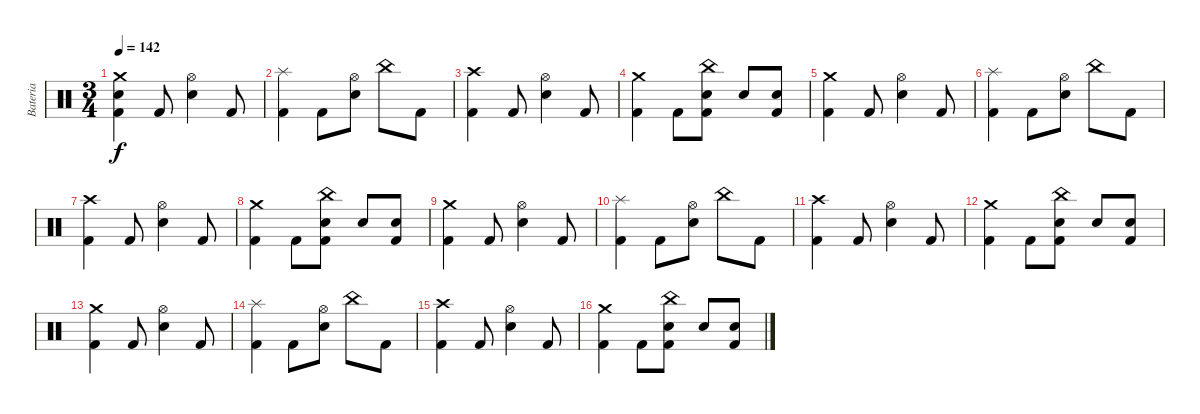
\track ("Bateria" "Bateria") {instrument percussion}
\staff {score}
\articulation defaults
\ts (3 4)
\tempo 142
\clef neutral
\ks c
("Crash medium (hit)" "Snare (hit)" "Kick (hit) 2").4{dy f} "Kick (hit) 2".8 ("Hi-Hat (open)" "Snare (hit) 2").4 "Kick (hit) 2".8 |
("Splash (hit)" "Kick (hit) 2").4 "Kick (hit) 2".8 ("Hi-Hat (open)" "Snare (hit) 2").8 "China (hit)".8 "Kick (hit) 2".8 |
("Crash high (hit)" "Kick (hit) 2").4 "Kick (hit) 2".8 ("Hi-Hat (open)" "Snare (hit) 2").4 "Kick (hit) 2".8 |
("Crash medium (hit)" "Kick (hit) 2").4 "Kick (hit) 2".8 ("China (hit)" "Snare (hit) 2" "Kick (hit) 2").8 "Snare (hit) 2".8 ("Snare (hit) 2" "Kick (hit) 2").8 |
("Crash medium (hit)" "Kick (hit) 2").4 "Kick (hit) 2".8 ("Hi-Hat (open)" "Snare (hit) 2").4 "Kick (hit) 2".8 |
("Splash (hit)" "Kick (hit) 2").4 "Kick (hit) 2".8 ("Hi-Hat (open)" "Snare (hit) 2").8 "China (hit)".8 "Kick (hit) 2".8 |
("Crash high (hit)" "Kick (hit) 2").4 "Kick (hit) 2".8 ("Hi-Hat (open)" "Snare (hit) 2").4 "Kick (hit) 2".8 |
("Crash medium (hit)" "Kick (hit) 2").4 "Kick (hit) 2".8 ("China (hit)" "Snare (hit) 2" "Kick (hit) 2").8 "Snare (hit) 2".8 ("Snare (hit) 2" "Kick (hit) 2").8 |
("Crash medium (hit)" "Kick (hit) 2").4 "Kick (hit) 2".8 ("Hi-Hat (open)" "Snare (hit) 2").4 "Kick (hit) 2".8 |
("Splash (hit)" "Kick (hit) 2").4 "Kick (hit) 2".8 ("Hi-Hat (open)" "Snare (hit) 2").8 "China (hit)".8 "Kick (hit) 2".8 |
("Crash high (hit)" "Kick (hit) 2").4 "Kick (hit) 2".8 ("Hi-Hat (open)" "Snare (hit) 2").4 "Kick (hit) 2".8 |
("Crash medium (hit)" "Kick (hit) 2").4 "Kick (hit) 2".8 ("China (hit)" "Snare (hit) 2" "Kick (hit) 2").8 "Snare (hit) 2".8 ("Snare (hit) 2" "Kick (hit) 2").8 |
("Crash medium (hit)" "Kick (hit) 2").4 "Kick (hit) 2".8 ("Hi-Hat (open)" "Snare (hit) 2").4 "Kick (hit) 2".8 |
("Splash (hit)" "Kick (hit) 2").4 "Kick (hit) 2".8 ("Hi-Hat (open)" "Snare (hit) 2").8 "China (hit)".8 "Kick (hit) 2".8 |
("Crash high (hit)" "Kick (hit) 2").4 "Kick (hit) 2".8 ("Hi-Hat (open)" "Snare (hit) 2").4 "Kick (hit) 2".8 |
("Crash medium (hit)" "Kick (hit) 2").4 "Kick (hit) 2".8 ("China (hit)" "Snare (hit) 2" "Kick (hit) 2").8 "Snare (hit) 2".8 ("Snare (hit) 2" "Kick (hit) 2").8
